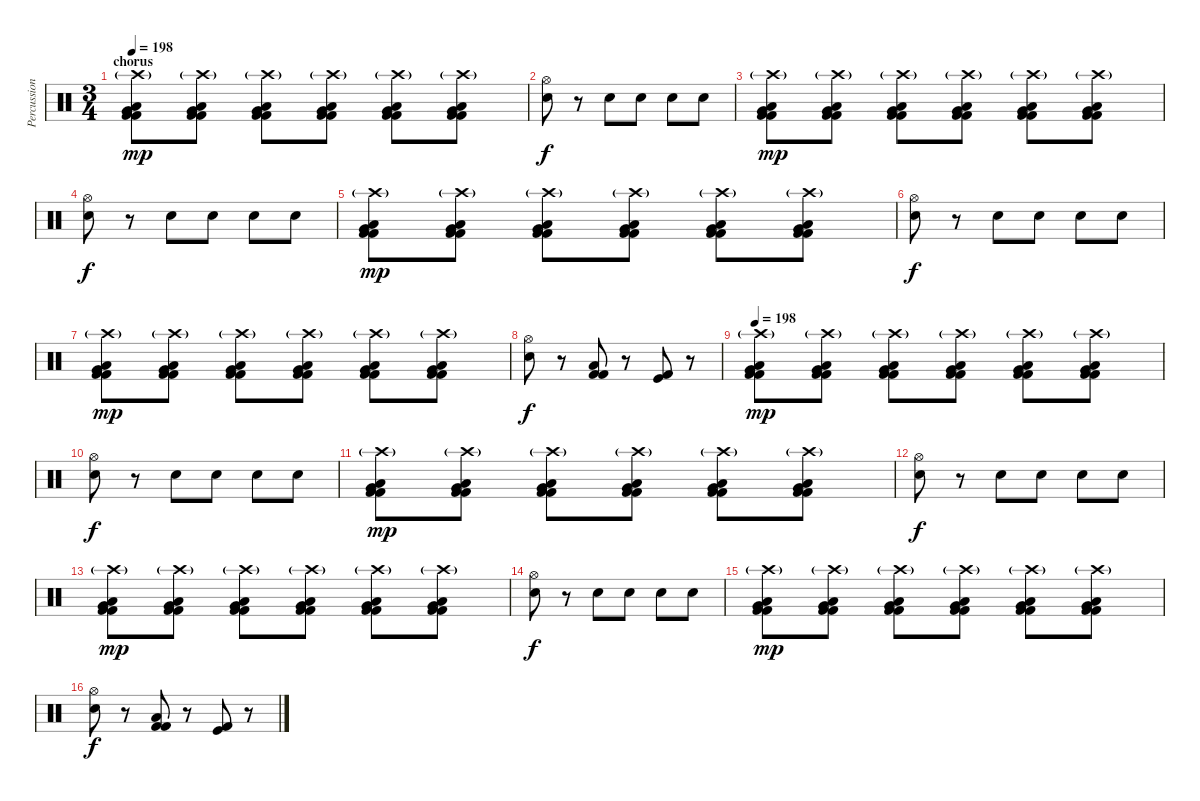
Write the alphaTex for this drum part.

\track ("Percussions" "Percussion") {instrument percussion}
\staff {score}
\articulation defaults
\ts (3 4)
\section ("" "chorus")
\tempo 198
\clef neutral
\ks c
("Low Floor Tom (hit)" "Kick (hit) 2" "Kick (hit) 2" "Very Low Tom (hit)" "Crash high (hit)"{g}).8{dy mp} ("Low Floor Tom (hit)" "Kick (hit) 2" "Kick (hit) 2" "Very Low Tom (hit)" "Crash high (hit)"{g}).8 ("Low Floor Tom (hit)" "Kick (hit) 2" "Kick (hit) 2" "Very Low Tom (hit)" "Crash high (hit)"{g}).8 ("Low Floor Tom (hit)" "Kick (hit) 2" "Kick (hit) 2" "Very Low Tom (hit)" "Crash high (hit)"{g}).8 ("Low Floor Tom (hit)" "Kick (hit) 2" "Kick (hit) 2" "Very Low Tom (hit)" "Crash high (hit)"{g}).8 ("Low Floor Tom (hit)" "Kick (hit) 2" "Kick (hit) 2" "Very Low Tom (hit)" "Crash high (hit)"{g}).8 |
("Electric Snare (hit)" "Hi-Hat (open)").8{dy f} r.8 "Electric Snare (hit)".8 "Electric Snare (hit)".8 "Electric Snare (hit)".8 "Electric Snare (hit)".8 |
("Low Floor Tom (hit)" "Kick (hit) 2" "Kick (hit) 2" "Very Low Tom (hit)" "Crash high (hit)"{g}).8{dy mp} ("Low Floor Tom (hit)" "Kick (hit) 2" "Kick (hit) 2" "Very Low Tom (hit)" "Crash high (hit)"{g}).8 ("Low Floor Tom (hit)" "Kick (hit) 2" "Kick (hit) 2" "Very Low Tom (hit)" "Crash high (hit)"{g}).8 ("Low Floor Tom (hit)" "Kick (hit) 2" "Kick (hit) 2" "Very Low Tom (hit)" "Crash high (hit)"{g}).8 ("Low Floor Tom (hit)" "Kick (hit) 2" "Kick (hit) 2" "Very Low Tom (hit)" "Crash high (hit)"{g}).8 ("Low Floor Tom (hit)" "Kick (hit) 2" "Kick (hit) 2" "Very Low Tom (hit)" "Crash high (hit)"{g}).8 |
("Electric Snare (hit)" "Hi-Hat (open)").8{dy f} r.8 "Electric Snare (hit)".8 "Electric Snare (hit)".8 "Electric Snare (hit)".8 "Electric Snare (hit)".8 |
("Low Floor Tom (hit)" "Kick (hit) 2" "Kick (hit) 2" "Very Low Tom (hit)" "Crash high (hit)"{g}).8{dy mp} ("Low Floor Tom (hit)" "Kick (hit) 2" "Kick (hit) 2" "Very Low Tom (hit)" "Crash high (hit)"{g}).8 ("Low Floor Tom (hit)" "Kick (hit) 2" "Kick (hit) 2" "Very Low Tom (hit)" "Crash high (hit)"{g}).8 ("Low Floor Tom (hit)" "Kick (hit) 2" "Kick (hit) 2" "Very Low Tom (hit)" "Crash high (hit)"{g}).8 ("Low Floor Tom (hit)" "Kick (hit) 2" "Kick (hit) 2" "Very Low Tom (hit)" "Crash high (hit)"{g}).8 ("Low Floor Tom (hit)" "Kick (hit) 2" "Kick (hit) 2" "Very Low Tom (hit)" "Crash high (hit)"{g}).8 |
("Electric Snare (hit)" "Hi-Hat (open)").8{dy f} r.8 "Electric Snare (hit)".8 "Electric Snare (hit)".8 "Electric Snare (hit)".8 "Electric Snare (hit)".8 |
("Low Floor Tom (hit)" "Kick (hit) 2" "Kick (hit) 2" "Very Low Tom (hit)" "Crash high (hit)"{g}).8{dy mp} ("Low Floor Tom (hit)" "Kick (hit) 2" "Kick (hit) 2" "Very Low Tom (hit)" "Crash high (hit)"{g}).8 ("Low Floor Tom (hit)" "Kick (hit) 2" "Kick (hit) 2" "Very Low Tom (hit)" "Crash high (hit)"{g}).8 ("Low Floor Tom (hit)" "Kick (hit) 2" "Kick (hit) 2" "Very Low Tom (hit)" "Crash high (hit)"{g}).8 ("Low Floor Tom (hit)" "Kick (hit) 2" "Kick (hit) 2" "Very Low Tom (hit)" "Crash high (hit)"{g}).8 ("Low Floor Tom (hit)" "Kick (hit) 2" "Kick (hit) 2" "Very Low Tom (hit)" "Crash high (hit)"{g}).8 |
("Electric Snare (hit)" "Hi-Hat (open)").8{dy f} r.8 ("Low Floor Tom (hit)" "Kick (hit) 2" "Kick (hit) 2").8 r.8 ("Kick (hit)" "Kick (hit) 2").8 r.8 |
\tempo 198
("Low Floor Tom (hit)" "Kick (hit) 2" "Kick (hit) 2" "Very Low Tom (hit)" "Crash high (hit)"{g}).8{dy mp} ("Low Floor Tom (hit)" "Kick (hit) 2" "Kick (hit) 2" "Very Low Tom (hit)" "Crash high (hit)"{g}).8 ("Low Floor Tom (hit)" "Kick (hit) 2" "Kick (hit) 2" "Very Low Tom (hit)" "Crash high (hit)"{g}).8 ("Low Floor Tom (hit)" "Kick (hit) 2" "Kick (hit) 2" "Very Low Tom (hit)" "Crash high (hit)"{g}).8 ("Low Floor Tom (hit)" "Kick (hit) 2" "Kick (hit) 2" "Very Low Tom (hit)" "Crash high (hit)"{g}).8 ("Low Floor Tom (hit)" "Kick (hit) 2" "Kick (hit) 2" "Very Low Tom (hit)" "Crash high (hit)"{g}).8 |
("Electric Snare (hit)" "Hi-Hat (open)").8{dy f} r.8 "Electric Snare (hit)".8 "Electric Snare (hit)".8 "Electric Snare (hit)".8 "Electric Snare (hit)".8 |
("Low Floor Tom (hit)" "Kick (hit) 2" "Kick (hit) 2" "Very Low Tom (hit)" "Crash high (hit)"{g}).8{dy mp} ("Low Floor Tom (hit)" "Kick (hit) 2" "Kick (hit) 2" "Very Low Tom (hit)" "Crash high (hit)"{g}).8 ("Low Floor Tom (hit)" "Kick (hit) 2" "Kick (hit) 2" "Very Low Tom (hit)" "Crash high (hit)"{g}).8 ("Low Floor Tom (hit)" "Kick (hit) 2" "Kick (hit) 2" "Very Low Tom (hit)" "Crash high (hit)"{g}).8 ("Low Floor Tom (hit)" "Kick (hit) 2" "Kick (hit) 2" "Very Low Tom (hit)" "Crash high (hit)"{g}).8 ("Low Floor Tom (hit)" "Kick (hit) 2" "Kick (hit) 2" "Very Low Tom (hit)" "Crash high (hit)"{g}).8 |
("Electric Snare (hit)" "Hi-Hat (open)").8{dy f} r.8 "Electric Snare (hit)".8 "Electric Snare (hit)".8 "Electric Snare (hit)".8 "Electric Snare (hit)".8 |
("Low Floor Tom (hit)" "Kick (hit) 2" "Kick (hit) 2" "Very Low Tom (hit)" "Crash high (hit)"{g}).8{dy mp} ("Low Floor Tom (hit)" "Kick (hit) 2" "Kick (hit) 2" "Very Low Tom (hit)" "Crash high (hit)"{g}).8 ("Low Floor Tom (hit)" "Kick (hit) 2" "Kick (hit) 2" "Very Low Tom (hit)" "Crash high (hit)"{g}).8 ("Low Floor Tom (hit)" "Kick (hit) 2" "Kick (hit) 2" "Very Low Tom (hit)" "Crash high (hit)"{g}).8 ("Low Floor Tom (hit)" "Kick (hit) 2" "Kick (hit) 2" "Very Low Tom (hit)" "Crash high (hit)"{g}).8 ("Low Floor Tom (hit)" "Kick (hit) 2" "Kick (hit) 2" "Very Low Tom (hit)" "Crash high (hit)"{g}).8 |
("Electric Snare (hit)" "Hi-Hat (open)").8{dy f} r.8 "Electric Snare (hit)".8 "Electric Snare (hit)".8 "Electric Snare (hit)".8 "Electric Snare (hit)".8 |
("Low Floor Tom (hit)" "Kick (hit) 2" "Kick (hit) 2" "Very Low Tom (hit)" "Crash high (hit)"{g}).8{dy mp} ("Low Floor Tom (hit)" "Kick (hit) 2" "Kick (hit) 2" "Very Low Tom (hit)" "Crash high (hit)"{g}).8 ("Low Floor Tom (hit)" "Kick (hit) 2" "Kick (hit) 2" "Very Low Tom (hit)" "Crash high (hit)"{g}).8 ("Low Floor Tom (hit)" "Kick (hit) 2" "Kick (hit) 2" "Very Low Tom (hit)" "Crash high (hit)"{g}).8 ("Low Floor Tom (hit)" "Kick (hit) 2" "Kick (hit) 2" "Very Low Tom (hit)" "Crash high (hit)"{g}).8 ("Low Floor Tom (hit)" "Kick (hit) 2" "Kick (hit) 2" "Very Low Tom (hit)" "Crash high (hit)"{g}).8 |
("Electric Snare (hit)" "Hi-Hat (open)").8{dy f} r.8 ("Low Floor Tom (hit)" "Kick (hit) 2" "Kick (hit) 2").8 r.8 ("Kick (hit)" "Kick (hit) 2").8 r.8
